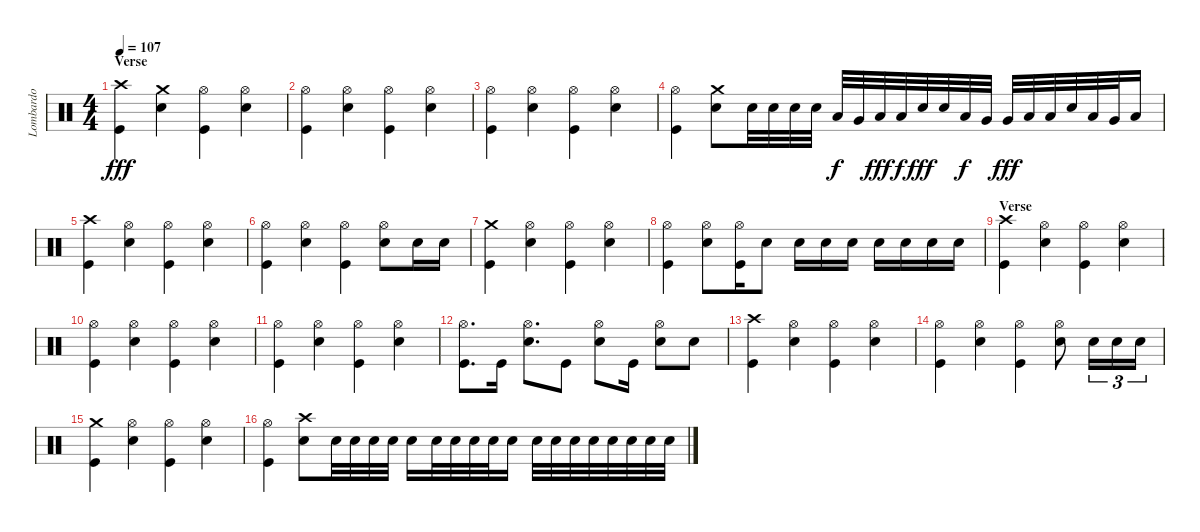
\track ("Lombardo" "Lombardo") {instrument percussion}
\staff {score}
\articulation defaults
\ts (4 4)
\section ("" "Verse")
\tempo 107
\clef neutral
\ks c
("Kick (hit)" "Crash high (hit)").4{dy fff} ("Electric Snare (hit)" "Crash medium (hit)").4 ("Kick (hit)" "Hi-Hat (open)").4 ("Electric Snare (hit)" "Hi-Hat (open)").4 |
("Kick (hit)" "Hi-Hat (open)").4 ("Electric Snare (hit)" "Hi-Hat (open)").4 ("Kick (hit)" "Hi-Hat (open)").4 ("Electric Snare (hit)" "Hi-Hat (open)").4 |
("Kick (hit)" "Hi-Hat (open)").4 ("Electric Snare (hit)" "Hi-Hat (open)").4 ("Kick (hit)" "Hi-Hat (open)").4 ("Electric Snare (hit)" "Hi-Hat (open)").4 |
("Kick (hit)" "Hi-Hat (open)").4 ("Electric Snare (hit)" "Crash medium (hit)").8 "Electric Snare (hit)".32 "Electric Snare (hit)".32 "Electric Snare (hit)".32 "Electric Snare (hit)".32 "Low Tom (hit)".32{dy f} "Very Low Tom (hit)".32 "Low Floor Tom (hit)".32{dy fff} "Low Floor Tom (hit)".32{dy f} "Electric Snare (hit)".32{dy fff} "Electric Snare (hit)".32 "Low Tom (hit)".32{dy f} "Very Low Tom (hit)".32 "Very Low Tom (hit)".32{dy fff} "Low Floor Tom (hit)".32 "Low Floor Tom (hit)".32 "Electric Snare (hit)".32 "Low Floor Tom (hit)".32 "Very Low Tom (hit)".32 "Low Floor Tom (hit)".16 |
("Kick (hit)" "Crash high (hit)").4 ("Electric Snare (hit)" "Hi-Hat (open)").4 ("Kick (hit)" "Hi-Hat (open)").4 ("Electric Snare (hit)" "Hi-Hat (open)").4 |
("Kick (hit)" "Hi-Hat (open)").4 ("Electric Snare (hit)" "Hi-Hat (open)").4 ("Kick (hit)" "Hi-Hat (open)").4 ("Electric Snare (hit)" "Hi-Hat (open)").8 "Electric Snare (hit)".16 "Electric Snare (hit)".16 |
("Kick (hit)" "Crash medium (hit)").4 ("Electric Snare (hit)" "Hi-Hat (open)").4 ("Kick (hit)" "Hi-Hat (open)").4 ("Electric Snare (hit)" "Hi-Hat (open)").4 |
("Kick (hit)" "Hi-Hat (open)").4 ("Electric Snare (hit)" "Hi-Hat (open)").8 ("Kick (hit)" "Hi-Hat (open)").16 "Electric Snare (hit)".8 "Electric Snare (hit)".16 "Electric Snare (hit)".16 "Electric Snare (hit)".16 "Electric Snare (hit)".16 "Electric Snare (hit)".16 "Electric Snare (hit)".16 "Electric Snare (hit)".16 |
\section ("" "Verse ")
("Kick (hit)" "Crash high (hit)").4 ("Electric Snare (hit)" "Hi-Hat (open)").4 ("Kick (hit)" "Hi-Hat (open)").4 ("Electric Snare (hit)" "Hi-Hat (open)").4 |
("Kick (hit)" "Hi-Hat (open)").4 ("Electric Snare (hit)" "Hi-Hat (open)").4 ("Kick (hit)" "Hi-Hat (open)").4 ("Electric Snare (hit)" "Hi-Hat (open)").4 |
("Kick (hit)" "Hi-Hat (open)").4 ("Electric Snare (hit)" "Hi-Hat (open)").4 ("Kick (hit)" "Hi-Hat (open)").4 ("Electric Snare (hit)" "Hi-Hat (open)").4 |
("Kick (hit)" "Hi-Hat (open)").8{d} "Kick (hit)".16 ("Electric Snare (hit)" "Hi-Hat (open)").8{d} "Kick (hit)".8 ("Electric Snare (hit)" "Hi-Hat (open)").8 "Kick (hit)".16 ("Electric Snare (hit)" "Hi-Hat (open)").8 "Electric Snare (hit)".8 |
("Kick (hit)" "Crash high (hit)").4 ("Electric Snare (hit)" "Hi-Hat (open)").4 ("Kick (hit)" "Hi-Hat (open)").4 ("Electric Snare (hit)" "Hi-Hat (open)").4 |
("Kick (hit)" "Hi-Hat (open)").4 ("Electric Snare (hit)" "Hi-Hat (open)").4 ("Kick (hit)" "Hi-Hat (open)").4 ("Electric Snare (hit)" "Hi-Hat (open)").8 "Electric Snare (hit)".16{tu (3 2)} "Electric Snare (hit)".16{tu (3 2)} "Electric Snare (hit)".16{tu (3 2)} |
("Kick (hit)" "Crash medium (hit)").4 ("Electric Snare (hit)" "Hi-Hat (open)").4 ("Kick (hit)" "Hi-Hat (open)").4 ("Electric Snare (hit)" "Hi-Hat (open)").4 |
("Kick (hit)" "Hi-Hat (open)").4 ("Electric Snare (hit)" "Crash high (hit)").8 "Electric Snare (hit)".32 "Electric Snare (hit)".32 "Electric Snare (hit)".32 "Electric Snare (hit)".32 "Electric Snare (hit)".16 "Electric Snare (hit)".32 "Electric Snare (hit)".32 "Electric Snare (hit)".32 "Electric Snare (hit)".32 "Electric Snare (hit)".16 "Electric Snare (hit)".32 "Electric Snare (hit)".32 "Electric Snare (hit)".32 "Electric Snare (hit)".32 "Electric Snare (hit)".32 "Electric Snare (hit)".32 "Electric Snare (hit)".32 "Electric Snare (hit)".32
